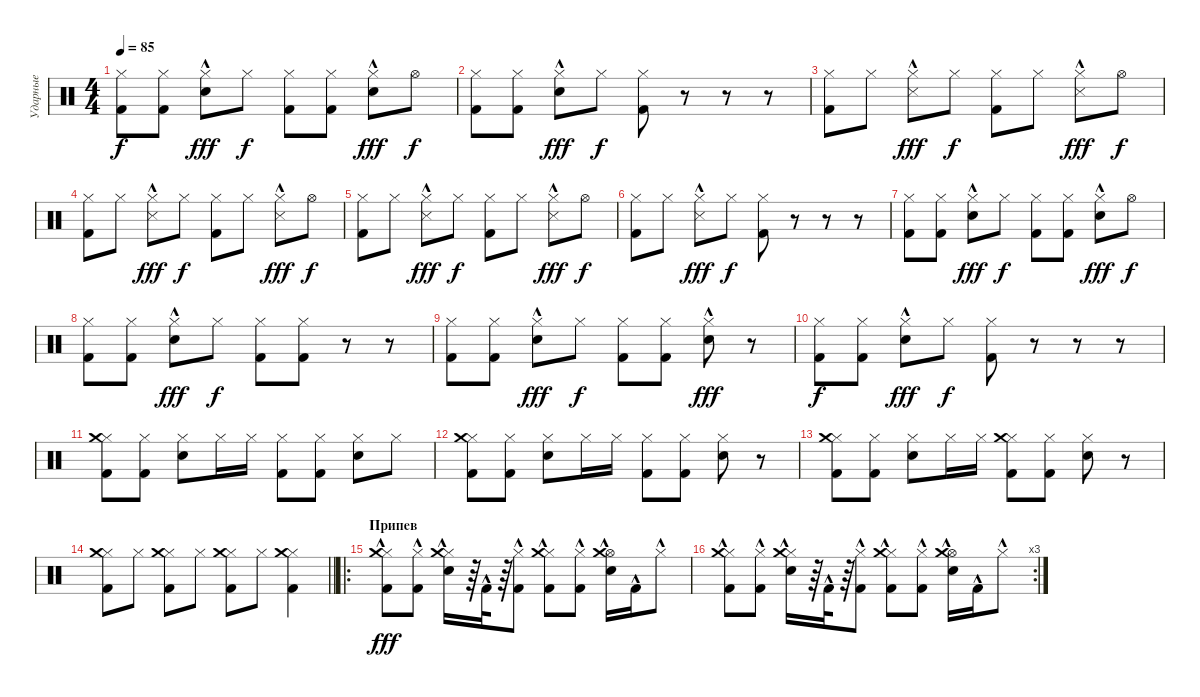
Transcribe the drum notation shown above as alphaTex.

\track ("Ударные" "Ударные") {instrument percussion}
\staff {score}
\articulation defaults
\ts (4 4)
\tempo 85
\clef neutral
\ks c
("Hi-Hat (closed)" "Kick (hit) 2").8{dy f} ("Hi-Hat (closed)" "Kick (hit) 2").8 ("Hi-Hat (closed)" "Electric Snare (hit)"{hac}).8{dy fff} "Hi-Hat (closed)".8{dy f} ("Hi-Hat (closed)" "Kick (hit) 2").8 ("Hi-Hat (closed)" "Kick (hit) 2").8 ("Hi-Hat (closed)" "Electric Snare (hit)"{hac}).8{dy fff} "Hi-Hat (open)".8{dy f} |
("Hi-Hat (closed)" "Kick (hit) 2").8 ("Hi-Hat (closed)" "Kick (hit) 2").8 ("Hi-Hat (closed)" "Electric Snare (hit)"{hac}).8{dy fff} "Hi-Hat (closed)".8{dy f} ("Hi-Hat (closed)" "Kick (hit) 2").8 r.8 r.8 r.8 |
("Hi-Hat (closed)" "Kick (hit) 2").8 "Hi-Hat (closed)".8 ("Hi-Hat (closed)" "Snare (side stick) 3"{hac}).8{dy fff} "Hi-Hat (closed)".8{dy f} ("Hi-Hat (closed)" "Kick (hit) 2").8 "Hi-Hat (closed)".8 ("Hi-Hat (closed)" "Snare (side stick) 3"{hac}).8{dy fff} "Hi-Hat (open)".8{dy f} |
("Hi-Hat (closed)" "Kick (hit) 2").8 "Hi-Hat (closed)".8 ("Hi-Hat (closed)" "Snare (side stick) 3"{hac}).8{dy fff} "Hi-Hat (closed)".8{dy f} ("Hi-Hat (closed)" "Kick (hit) 2").8 "Hi-Hat (closed)".8 ("Hi-Hat (closed)" "Snare (side stick) 3"{hac}).8{dy fff} "Hi-Hat (open)".8{dy f} |
("Hi-Hat (closed)" "Kick (hit) 2").8 "Hi-Hat (closed)".8 ("Hi-Hat (closed)" "Snare (side stick) 3"{hac}).8{dy fff} "Hi-Hat (closed)".8{dy f} ("Hi-Hat (closed)" "Kick (hit) 2").8 "Hi-Hat (closed)".8 ("Hi-Hat (closed)" "Snare (side stick) 3"{hac}).8{dy fff} "Hi-Hat (open)".8{dy f} |
("Hi-Hat (closed)" "Kick (hit) 2").8 "Hi-Hat (closed)".8 ("Hi-Hat (closed)" "Snare (side stick) 3"{hac}).8{dy fff} "Hi-Hat (closed)".8{dy f} ("Hi-Hat (closed)" "Kick (hit) 2").8 r.8 r.8 r.8 |
("Hi-Hat (closed)" "Kick (hit) 2").8 ("Hi-Hat (closed)" "Kick (hit) 2").8 ("Hi-Hat (closed)" "Electric Snare (hit)"{hac}).8{dy fff} "Hi-Hat (closed)".8{dy f} ("Hi-Hat (closed)" "Kick (hit) 2").8 ("Hi-Hat (closed)" "Kick (hit) 2").8 ("Hi-Hat (closed)" "Electric Snare (hit)"{hac}).8{dy fff} "Hi-Hat (open)".8{dy f} |
("Hi-Hat (closed)" "Kick (hit) 2").8 ("Hi-Hat (closed)" "Kick (hit) 2").8 ("Hi-Hat (closed)" "Electric Snare (hit)"{hac}).8{dy fff} "Hi-Hat (closed)".8{dy f} ("Hi-Hat (closed)" "Kick (hit) 2").8 ("Hi-Hat (closed)" "Kick (hit) 2").8 r.8 r.8 |
("Hi-Hat (closed)" "Kick (hit) 2").8 ("Hi-Hat (closed)" "Kick (hit) 2").8 ("Hi-Hat (closed)" "Electric Snare (hit)"{hac}).8{dy fff} "Hi-Hat (closed)".8{dy f} ("Hi-Hat (closed)" "Kick (hit) 2").8 ("Hi-Hat (closed)" "Kick (hit) 2").8 ("Hi-Hat (closed)" "Electric Snare (hit)"{hac}).8{dy fff} r.8 |
("Hi-Hat (closed)" "Kick (hit) 2").8{dy f} ("Hi-Hat (closed)" "Kick (hit) 2").8 ("Hi-Hat (closed)" "Electric Snare (hit)"{hac}).8{dy fff} "Hi-Hat (closed)".8{dy f} ("Hi-Hat (closed)" "Kick (hit) 2").8 r.8 r.8 r.8 |
("Hi-Hat (closed)" "Kick (hit) 2" "Crash medium (hit)").8 ("Hi-Hat (closed)" "Kick (hit) 2").8 ("Hi-Hat (closed)" "Electric Snare (hit)").8 "Hi-Hat (closed)".16 "Hi-Hat (closed)".16 ("Hi-Hat (closed)" "Kick (hit) 2").8 ("Hi-Hat (closed)" "Kick (hit) 2").8 ("Hi-Hat (closed)" "Electric Snare (hit)").8 "Hi-Hat (closed)".8 |
("Hi-Hat (closed)" "Kick (hit) 2" "Crash medium (hit)").8 ("Hi-Hat (closed)" "Kick (hit) 2").8 ("Hi-Hat (closed)" "Electric Snare (hit)").8 "Hi-Hat (closed)".16 "Hi-Hat (closed)".16 ("Hi-Hat (closed)" "Kick (hit) 2").8 ("Hi-Hat (closed)" "Kick (hit) 2").8 ("Hi-Hat (closed)" "Electric Snare (hit)").8 r.8 |
("Hi-Hat (closed)" "Kick (hit) 2" "Crash medium (hit)").8 ("Hi-Hat (closed)" "Kick (hit) 2").8 ("Hi-Hat (closed)" "Electric Snare (hit)").8 "Hi-Hat (closed)".16 "Hi-Hat (closed)".16 ("Hi-Hat (closed)" "Kick (hit) 2" "Crash medium (hit)").8 ("Hi-Hat (closed)" "Kick (hit) 2").8 ("Hi-Hat (closed)" "Electric Snare (hit)").8 r.8 |
\barLineRight lightlight
("Hi-Hat (closed)" "Kick (hit) 2" "Crash medium (hit)").8 "Hi-Hat (closed)".8 ("Hi-Hat (closed)" "Kick (hit) 2" "Crash medium (hit)").8 "Hi-Hat (closed)".8 ("Hi-Hat (closed)" "Kick (hit) 2" "Crash medium (hit)").8 "Hi-Hat (closed)".8 ("Hi-Hat (closed)" "Kick (hit) 2" "Crash medium (hit)").4 |
\ro
\section ("" "Припев")
("Hi-Hat (closed)"{hac} "Kick (hit) 2"{hac} "Crash medium (hit)"{hac}).8{dy fff} ("Hi-Hat (closed)"{hac} "Kick (hit) 2"{hac}).8 ("Hi-Hat (closed)"{hac} "Electric Snare (hit)"{hac} "Crash medium (hit)"{hac}).16 r.64 "Kick (hit) 2"{hac}.32 r.64 ("Hi-Hat (closed)"{hac} "Kick (hit) 2"{hac}).8 ("Hi-Hat (closed)"{hac} "Kick (hit) 2"{hac} "Crash medium (hit)"{hac}).8 ("Hi-Hat (closed)"{hac} "Kick (hit) 2"{hac}).8 ("Hi-Hat (open)"{hac} "Electric Snare (hit)"{hac} "Crash medium (hit)"{hac}).16 "Kick (hit) 2"{hac}.16 "Hi-Hat (closed)"{hac}.8 |
\rc 3
("Hi-Hat (closed)"{hac} "Kick (hit) 2"{hac} "Crash medium (hit)"{hac}).8 ("Hi-Hat (closed)"{hac} "Kick (hit) 2"{hac}).8 ("Hi-Hat (closed)"{hac} "Electric Snare (hit)"{hac} "Crash medium (hit)"{hac}).16 r.64 "Kick (hit) 2"{hac}.32 r.64 ("Hi-Hat (closed)"{hac} "Kick (hit) 2"{hac}).8 ("Hi-Hat (closed)"{hac} "Kick (hit) 2"{hac} "Crash medium (hit)"{hac}).8 ("Hi-Hat (closed)"{hac} "Kick (hit) 2"{hac}).8 ("Hi-Hat (open)"{hac} "Electric Snare (hit)"{hac} "Crash medium (hit)"{hac}).16 "Kick (hit) 2"{hac}.16 "Hi-Hat (closed)"{hac}.8
